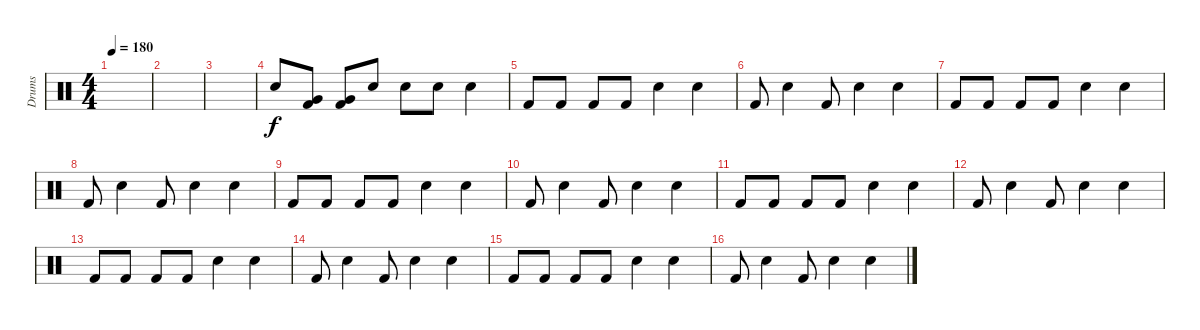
\track ("Drums" "Drums") {instrument percussion}
\staff {score}
\articulation defaults
\ts (4 4)
\tempo 180
\clef neutral
\ks c
|
|
|
"Snare (hit) 2".8 ("Very Low Tom (hit)" "Kick (hit) 2").8 ("Very Low Tom (hit)" "Kick (hit) 2").8 "Snare (hit) 2".8 "Snare (hit) 2".8 "Snare (hit) 2".8 "Snare (hit) 2".4 |
"Kick (hit) 2".8 "Kick (hit) 2".8 "Kick (hit) 2".8 "Kick (hit) 2".8 "Snare (hit) 2".4 "Snare (hit) 2".4 |
"Kick (hit) 2".8 "Snare (hit) 2".4 "Kick (hit) 2".8 "Snare (hit) 2".4 "Snare (hit) 2".4 |
"Kick (hit) 2".8 "Kick (hit) 2".8 "Kick (hit) 2".8 "Kick (hit) 2".8 "Snare (hit) 2".4 "Snare (hit) 2".4 |
"Kick (hit) 2".8 "Snare (hit) 2".4 "Kick (hit) 2".8 "Snare (hit) 2".4 "Snare (hit) 2".4 |
"Kick (hit) 2".8 "Kick (hit) 2".8 "Kick (hit) 2".8 "Kick (hit) 2".8 "Snare (hit) 2".4 "Snare (hit) 2".4 |
"Kick (hit) 2".8 "Snare (hit) 2".4 "Kick (hit) 2".8 "Snare (hit) 2".4 "Snare (hit) 2".4 |
"Kick (hit) 2".8 "Kick (hit) 2".8 "Kick (hit) 2".8 "Kick (hit) 2".8 "Snare (hit) 2".4 "Snare (hit) 2".4 |
"Kick (hit) 2".8 "Snare (hit) 2".4 "Kick (hit) 2".8 "Snare (hit) 2".4 "Snare (hit) 2".4 |
"Kick (hit) 2".8 "Kick (hit) 2".8 "Kick (hit) 2".8 "Kick (hit) 2".8 "Snare (hit) 2".4 "Snare (hit) 2".4 |
"Kick (hit) 2".8 "Snare (hit) 2".4 "Kick (hit) 2".8 "Snare (hit) 2".4 "Snare (hit) 2".4 |
"Kick (hit) 2".8 "Kick (hit) 2".8 "Kick (hit) 2".8 "Kick (hit) 2".8 "Snare (hit) 2".4 "Snare (hit) 2".4 |
"Kick (hit) 2".8 "Snare (hit) 2".4 "Kick (hit) 2".8 "Snare (hit) 2".4 "Snare (hit) 2".4
